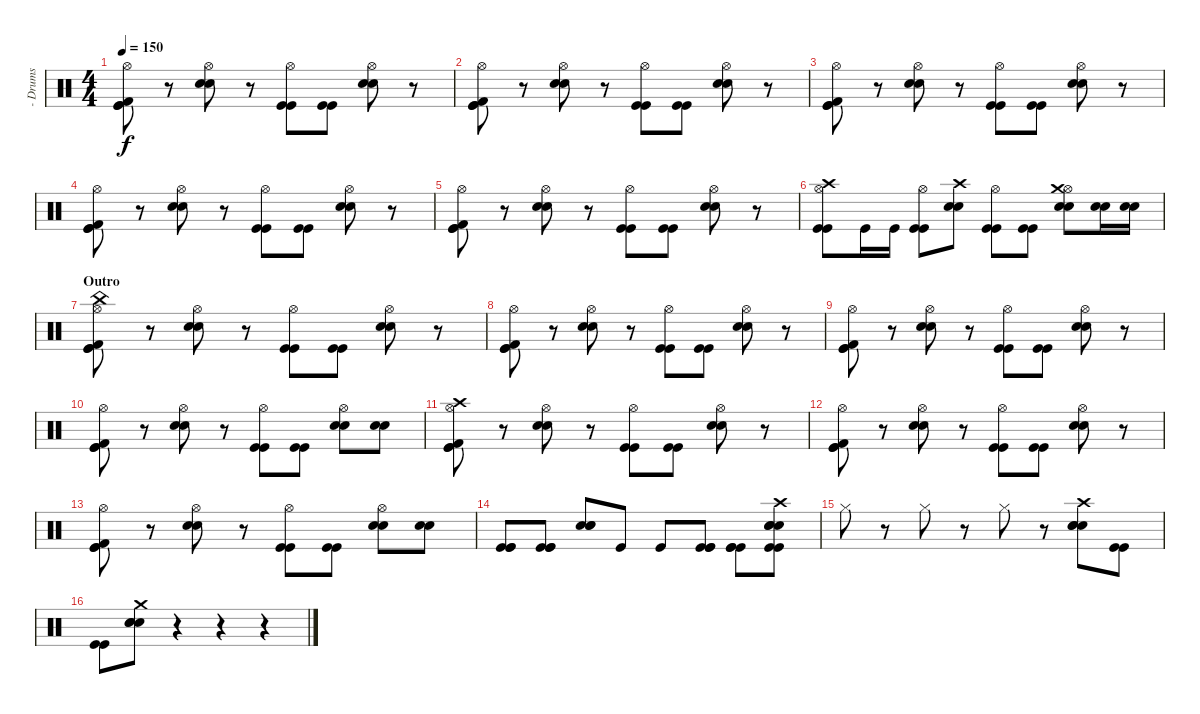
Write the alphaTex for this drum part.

\track (" - Drums" " - Drums") {instrument percussion}
\staff {score}
\articulation defaults
\ts (4 4)
\tempo 150
\clef neutral
\ks c
("Hi-Hat (open)" "Kick (hit) 2" "Kick (hit)" "Kick (hit)").8{dy f} r.8 ("Hi-Hat (open)" "Snare (hit) 2" "Snare (hit) 2").8 r.8 ("Hi-Hat (open)" "Kick (hit)" "Kick (hit)").8 ("Kick (hit)" "Kick (hit)").8 ("Hi-Hat (open)" "Snare (hit) 2" "Snare (hit) 2").8 r.8 |
("Hi-Hat (open)" "Kick (hit) 2" "Kick (hit)" "Kick (hit)").8 r.8 ("Hi-Hat (open)" "Snare (hit) 2" "Snare (hit) 2").8 r.8 ("Hi-Hat (open)" "Kick (hit)" "Kick (hit)").8 ("Kick (hit)" "Kick (hit)").8 ("Hi-Hat (open)" "Snare (hit) 2" "Snare (hit) 2").8 r.8 |
("Hi-Hat (open)" "Kick (hit) 2" "Kick (hit)" "Kick (hit)").8 r.8 ("Hi-Hat (open)" "Snare (hit) 2" "Snare (hit) 2").8 r.8 ("Hi-Hat (open)" "Kick (hit)" "Kick (hit)").8 ("Kick (hit)" "Kick (hit)").8 ("Hi-Hat (open)" "Snare (hit) 2" "Snare (hit) 2").8 r.8 |
("Hi-Hat (open)" "Kick (hit) 2" "Kick (hit)" "Kick (hit)").8 r.8 ("Hi-Hat (open)" "Snare (hit) 2" "Snare (hit) 2").8 r.8 ("Hi-Hat (open)" "Kick (hit)" "Kick (hit)").8 ("Kick (hit)" "Kick (hit)").8 ("Hi-Hat (open)" "Snare (hit) 2" "Snare (hit) 2").8 r.8 |
("Hi-Hat (open)" "Kick (hit) 2" "Kick (hit)" "Kick (hit)").8 r.8 ("Hi-Hat (open)" "Snare (hit) 2" "Snare (hit) 2").8 r.8 ("Hi-Hat (open)" "Kick (hit)" "Kick (hit)").8 ("Kick (hit)" "Kick (hit)").8 ("Hi-Hat (open)" "Snare (hit) 2" "Snare (hit) 2").8 r.8 |
("Hi-Hat (open)" "Crash high (hit)" "Kick (hit)" "Kick (hit)").8 "Kick (hit)".16 "Kick (hit)".16 ("Hi-Hat (open)" "Kick (hit)" "Kick (hit)").8 ("Crash high (hit)" "Snare (hit) 2" "Snare (hit) 2").8 ("Hi-Hat (open)" "Kick (hit)" "Kick (hit)").8 ("Kick (hit)" "Kick (hit)").8 ("Hi-Hat (open)" "Crash medium (hit)" "Snare (hit) 2" "Snare (hit) 2").8 ("Snare (hit) 2" "Snare (hit) 2").16 ("Snare (hit) 2" "Snare (hit) 2").16 |
\section ("" "Outro")
("Hi-Hat (open)" "China (hit)" "Kick (hit) 2" "Kick (hit)" "Kick (hit)").8 r.8 ("Hi-Hat (open)" "Snare (hit) 2" "Snare (hit) 2").8 r.8 ("Hi-Hat (open)" "Kick (hit)" "Kick (hit)").8 ("Kick (hit)" "Kick (hit)").8 ("Hi-Hat (open)" "Snare (hit) 2" "Snare (hit) 2").8 r.8 |
("Hi-Hat (open)" "Kick (hit) 2" "Kick (hit)" "Kick (hit)").8 r.8 ("Hi-Hat (open)" "Snare (hit) 2" "Snare (hit) 2").8 r.8 ("Hi-Hat (open)" "Kick (hit)" "Kick (hit)").8 ("Kick (hit)" "Kick (hit)").8 ("Hi-Hat (open)" "Snare (hit) 2" "Snare (hit) 2").8 r.8 |
("Hi-Hat (open)" "Kick (hit) 2" "Kick (hit)" "Kick (hit)").8 r.8 ("Hi-Hat (open)" "Snare (hit) 2" "Snare (hit) 2").8 r.8 ("Hi-Hat (open)" "Kick (hit)" "Kick (hit)").8 ("Kick (hit)" "Kick (hit)").8 ("Hi-Hat (open)" "Snare (hit) 2" "Snare (hit) 2").8 r.8 |
("Hi-Hat (open)" "Kick (hit) 2" "Kick (hit)" "Kick (hit)").8 r.8 ("Hi-Hat (open)" "Snare (hit) 2" "Snare (hit) 2").8 r.8 ("Hi-Hat (open)" "Kick (hit)" "Kick (hit)").8 ("Kick (hit)" "Kick (hit)").8 ("Hi-Hat (open)" "Snare (hit) 2" "Snare (hit) 2").8 ("Snare (hit) 2" "Snare (hit) 2").8 |
("Hi-Hat (open)" "Crash high (hit)" "Kick (hit) 2" "Kick (hit)" "Kick (hit)").8 r.8 ("Hi-Hat (open)" "Snare (hit) 2" "Snare (hit) 2").8 r.8 ("Hi-Hat (open)" "Kick (hit)" "Kick (hit)").8 ("Kick (hit)" "Kick (hit)").8 ("Hi-Hat (open)" "Snare (hit) 2" "Snare (hit) 2").8 r.8 |
("Hi-Hat (open)" "Kick (hit) 2" "Kick (hit)" "Kick (hit)").8 r.8 ("Hi-Hat (open)" "Snare (hit) 2" "Snare (hit) 2").8 r.8 ("Hi-Hat (open)" "Kick (hit)" "Kick (hit)").8 ("Kick (hit)" "Kick (hit)").8 ("Hi-Hat (open)" "Snare (hit) 2" "Snare (hit) 2").8 r.8 |
("Hi-Hat (open)" "Kick (hit) 2" "Kick (hit)" "Kick (hit)").8 r.8 ("Hi-Hat (open)" "Snare (hit) 2" "Snare (hit) 2").8 r.8 ("Hi-Hat (open)" "Kick (hit)" "Kick (hit)").8 ("Kick (hit)" "Kick (hit)").8 ("Hi-Hat (open)" "Snare (hit) 2" "Snare (hit) 2").8 ("Snare (hit) 2" "Snare (hit) 2").8 |
("Kick (hit)" "Kick (hit)" "Kick (hit)").8 ("Kick (hit)" "Kick (hit)" "Kick (hit)").8 ("Snare (hit) 2" "Snare (hit) 2" "Snare (hit) 2").8 "Kick (hit)".8 "Kick (hit)".8 ("Kick (hit)" "Kick (hit)" "Kick (hit)").8 ("Kick (hit)" "Kick (hit)" "Kick (hit)").8 ("Crash high (hit)" "Snare (hit) 2" "Snare (hit) 2" "Snare (hit) 2" "Kick (hit)" "Kick (hit)").8 |
"Hi-Hat (closed)".8 r.8 "Hi-Hat (closed)".8 r.8 "Hi-Hat (closed)".8 r.8 ("Crash high (hit)" "Snare (hit) 2" "Snare (hit) 2" "Snare (hit) 2").8 ("Kick (hit)" "Kick (hit)").8 |
("Kick (hit)" "Kick (hit)").8 ("Crash medium (hit)" "Snare (hit) 2" "Snare (hit) 2" "Snare (hit) 2").8 r.4 r.4 r.4
